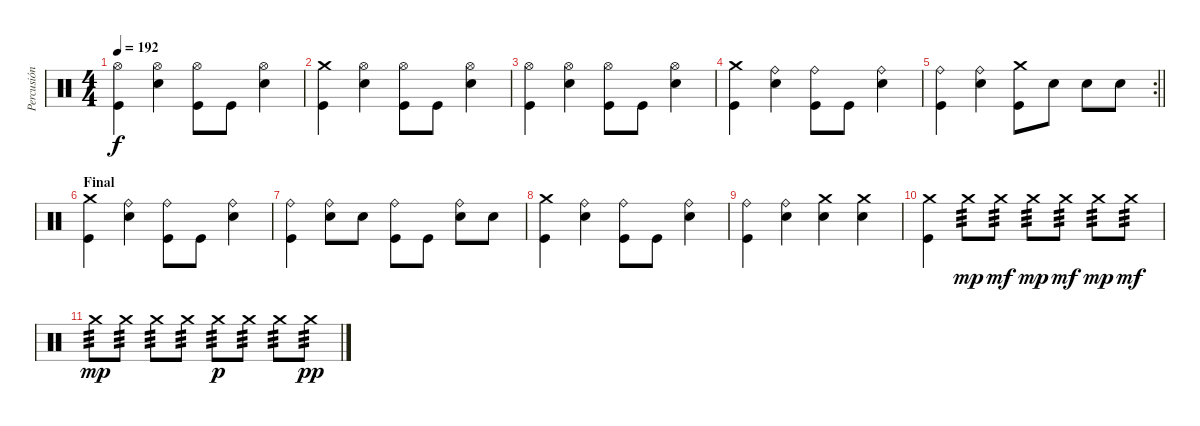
\track ("Percusión" "Percusión") {instrument percussion}
\staff {score}
\articulation defaults
\ts (4 4)
\tempo 192
\clef neutral
\ks c
("Hi-Hat (open)" "Kick (hit)").4{dy f} ("Hi-Hat (open)" "Snare (hit) 2").4 ("Hi-Hat (open)" "Kick (hit)").8 "Kick (hit)".8 ("Hi-Hat (open)" "Snare (hit) 2").4 |
("Crash medium (hit)" "Kick (hit)").4 ("Hi-Hat (open)" "Snare (hit) 2").4 ("Hi-Hat (open)" "Kick (hit)").8 "Kick (hit)".8 ("Hi-Hat (open)" "Snare (hit) 2").4 |
("Hi-Hat (open)" "Kick (hit)").4 ("Hi-Hat (open)" "Snare (hit) 2").4 ("Hi-Hat (open)" "Kick (hit)").8 "Kick (hit)".8 ("Hi-Hat (open)" "Snare (hit) 2").4 |
("Crash medium (hit)" "Kick (hit)").4 ("Ride (bell)" "Snare (hit) 2").4 ("Ride (bell)" "Kick (hit)").8 "Kick (hit)".8 ("Ride (bell)" "Snare (hit) 2").4 |
\rc 2
\barLineRight lightlight
("Ride (bell)" "Kick (hit)").4 ("Ride (bell)" "Snare (hit) 2").4 ("Crash medium (hit)" "Kick (hit)").8 "Snare (hit) 2".8 "Snare (hit) 2".8 "Snare (hit) 2".8 |
\section ("" "Final")
("Crash medium (hit)" "Kick (hit)").4 ("Ride (bell)" "Snare (hit) 2").4 ("Ride (bell)" "Kick (hit)").8 "Kick (hit)".8 ("Ride (bell)" "Snare (hit) 2").4 |
("Ride (bell)" "Kick (hit)").4 ("Ride (bell)" "Snare (hit) 2").8 "Snare (hit) 2".8 ("Ride (bell)" "Kick (hit)").8 "Kick (hit)".8 ("Ride (bell)" "Snare (hit) 2").8 "Snare (hit) 2".8 |
("Crash medium (hit)" "Kick (hit)").4 ("Ride (bell)" "Snare (hit) 2").4 ("Ride (bell)" "Kick (hit)").8 "Kick (hit)".8 ("Ride (bell)" "Snare (hit) 2").4 |
("Ride (bell)" "Kick (hit)").4 ("Ride (bell)" "Snare (hit) 2").4 ("Crash medium (hit)" "Snare (hit) 2").4 ("Crash medium (hit)" "Snare (hit) 2").4 |
("Crash medium (hit)" "Kick (hit)").4 "Crash medium (hit)".8{tp 3 dy mp} "Crash medium (hit)".8{tp 3 dy mf} "Crash medium (hit)".8{tp 3 dy mp} "Crash medium (hit)".8{tp 3 dy mf} "Crash medium (hit)".8{tp 3 dy mp} "Crash medium (hit)".8{tp 3 dy mf} |
"Crash medium (hit)".8{tp 3 dy mp} "Crash medium (hit)".8{tp 3} "Crash medium (hit)".8{tp 3} "Crash medium (hit)".8{tp 3} "Crash medium (hit)".8{tp 3 dy p} "Crash medium (hit)".8{tp 3} "Crash medium (hit)".8{tp 3} "Crash medium (hit)".8{tp 3 dy pp}
